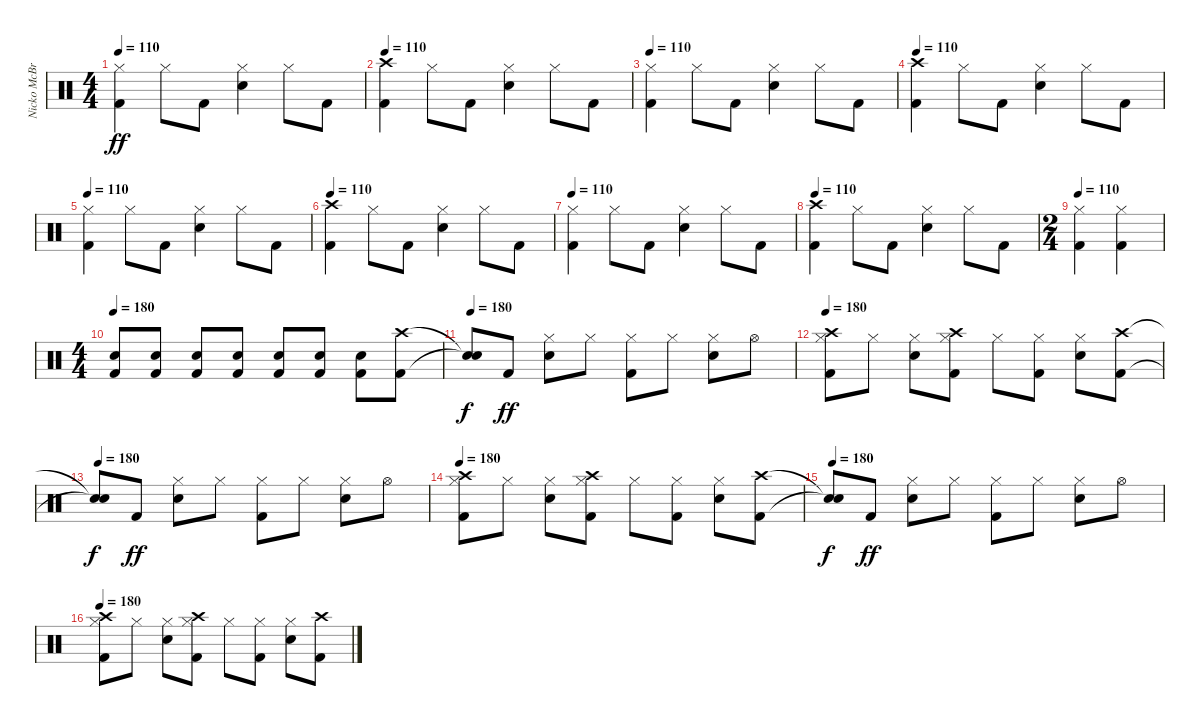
\track ("Nicko McBrain" "Nicko McBr") {instrument percussion}
\staff {score}
\articulation defaults
\ts (4 4)
\tempo 110
\clef neutral
\ks c
("Kick (hit) 2" "Hi-Hat (closed)").4{dy ff} "Hi-Hat (closed)".8 "Kick (hit) 2".8 ("Snare (hit) 2" "Hi-Hat (closed)").4 "Hi-Hat (closed)".8 "Kick (hit) 2".8 |
\tempo 110
("Kick (hit) 2" "Crash high (hit)").4 "Hi-Hat (closed)".8 "Kick (hit) 2".8 ("Snare (hit) 2" "Hi-Hat (closed)").4 "Hi-Hat (closed)".8 "Kick (hit) 2".8 |
\tempo 110
("Kick (hit) 2" "Hi-Hat (closed)").4 "Hi-Hat (closed)".8 "Kick (hit) 2".8 ("Snare (hit) 2" "Hi-Hat (closed)").4 "Hi-Hat (closed)".8 "Kick (hit) 2".8 |
\tempo 110
("Kick (hit) 2" "Crash high (hit)").4 "Hi-Hat (closed)".8 "Kick (hit) 2".8 ("Snare (hit) 2" "Hi-Hat (closed)").4 "Hi-Hat (closed)".8 "Kick (hit) 2".8 |
\tempo 110
("Kick (hit) 2" "Hi-Hat (closed)").4 "Hi-Hat (closed)".8 "Kick (hit) 2".8 ("Snare (hit) 2" "Hi-Hat (closed)").4 "Hi-Hat (closed)".8 "Kick (hit) 2".8 |
\tempo 110
("Kick (hit) 2" "Crash high (hit)").4 "Hi-Hat (closed)".8 "Kick (hit) 2".8 ("Snare (hit) 2" "Hi-Hat (closed)").4 "Hi-Hat (closed)".8 "Kick (hit) 2".8 |
\tempo 110
("Kick (hit) 2" "Hi-Hat (closed)").4 "Hi-Hat (closed)".8 "Kick (hit) 2".8 ("Snare (hit) 2" "Hi-Hat (closed)").4 "Hi-Hat (closed)".8 "Kick (hit) 2".8 |
\tempo 110
("Kick (hit) 2" "Crash high (hit)").4 "Hi-Hat (closed)".8 "Kick (hit) 2".8 ("Snare (hit) 2" "Hi-Hat (closed)").4 "Hi-Hat (closed)".8 "Kick (hit) 2".8 |
\ts (2 4)
\tempo 110
("Kick (hit) 2" "Hi-Hat (closed)").4 ("Kick (hit) 2" "Hi-Hat (closed)").4 |
\ts (4 4)
\tempo 180
("Kick (hit) 2" "Snare (hit) 2").8 ("Kick (hit) 2" "Snare (hit) 2").8 ("Kick (hit) 2" "Snare (hit) 2").8 ("Kick (hit) 2" "Snare (hit) 2").8 ("Kick (hit) 2" "Snare (hit) 2").8 ("Kick (hit) 2" "Snare (hit) 2").8 ("Kick (hit) 2" "Snare (hit) 2").8 ("Kick (hit) 2" "Crash high (hit)").8 |
\tempo 180
("Snare (hit)"{t} "Snare (hit)"{t}).8{dy f} "Kick (hit) 2".8{dy ff} ("Snare (hit) 2" "Hi-Hat (closed)").8 "Hi-Hat (closed)".8 ("Kick (hit) 2" "Hi-Hat (closed)").8 "Hi-Hat (closed)".8 ("Snare (hit) 2" "Hi-Hat (closed)").8 "Hi-Hat (open)".8 |
\tempo 180
("Kick (hit) 2" "Hi-Hat (closed)" "Crash high (hit)").8 "Hi-Hat (closed)".8 ("Snare (hit) 2" "Hi-Hat (closed)").8 ("Kick (hit) 2" "Hi-Hat (closed)" "Crash high (hit)").8 "Hi-Hat (closed)".8 ("Kick (hit) 2" "Hi-Hat (closed)").8 ("Snare (hit) 2" "Hi-Hat (closed)").8 ("Kick (hit) 2" "Crash high (hit)").8 |
\tempo 180
("Snare (hit)"{t} "Snare (hit)"{t}).8{dy f} "Kick (hit) 2".8{dy ff} ("Snare (hit) 2" "Hi-Hat (closed)").8 "Hi-Hat (closed)".8 ("Kick (hit) 2" "Hi-Hat (closed)").8 "Hi-Hat (closed)".8 ("Snare (hit) 2" "Hi-Hat (closed)").8 "Hi-Hat (open)".8 |
\tempo 180
("Kick (hit) 2" "Hi-Hat (closed)" "Crash high (hit)").8 "Hi-Hat (closed)".8 ("Snare (hit) 2" "Hi-Hat (closed)").8 ("Kick (hit) 2" "Hi-Hat (closed)" "Crash high (hit)").8 "Hi-Hat (closed)".8 ("Kick (hit) 2" "Hi-Hat (closed)").8 ("Snare (hit) 2" "Hi-Hat (closed)").8 ("Kick (hit) 2" "Crash high (hit)").8 |
\tempo 180
("Snare (hit)"{t} "Snare (hit)"{t}).8{dy f} "Kick (hit) 2".8{dy ff} ("Snare (hit) 2" "Hi-Hat (closed)").8 "Hi-Hat (closed)".8 ("Kick (hit) 2" "Hi-Hat (closed)").8 "Hi-Hat (closed)".8 ("Snare (hit) 2" "Hi-Hat (closed)").8 "Hi-Hat (open)".8 |
\tempo 180
("Kick (hit) 2" "Hi-Hat (closed)" "Crash high (hit)").8 "Hi-Hat (closed)".8 ("Snare (hit) 2" "Hi-Hat (closed)").8 ("Kick (hit) 2" "Hi-Hat (closed)" "Crash high (hit)").8 "Hi-Hat (closed)".8 ("Kick (hit) 2" "Hi-Hat (closed)").8 ("Snare (hit) 2" "Hi-Hat (closed)").8 ("Kick (hit) 2" "Crash high (hit)").8
